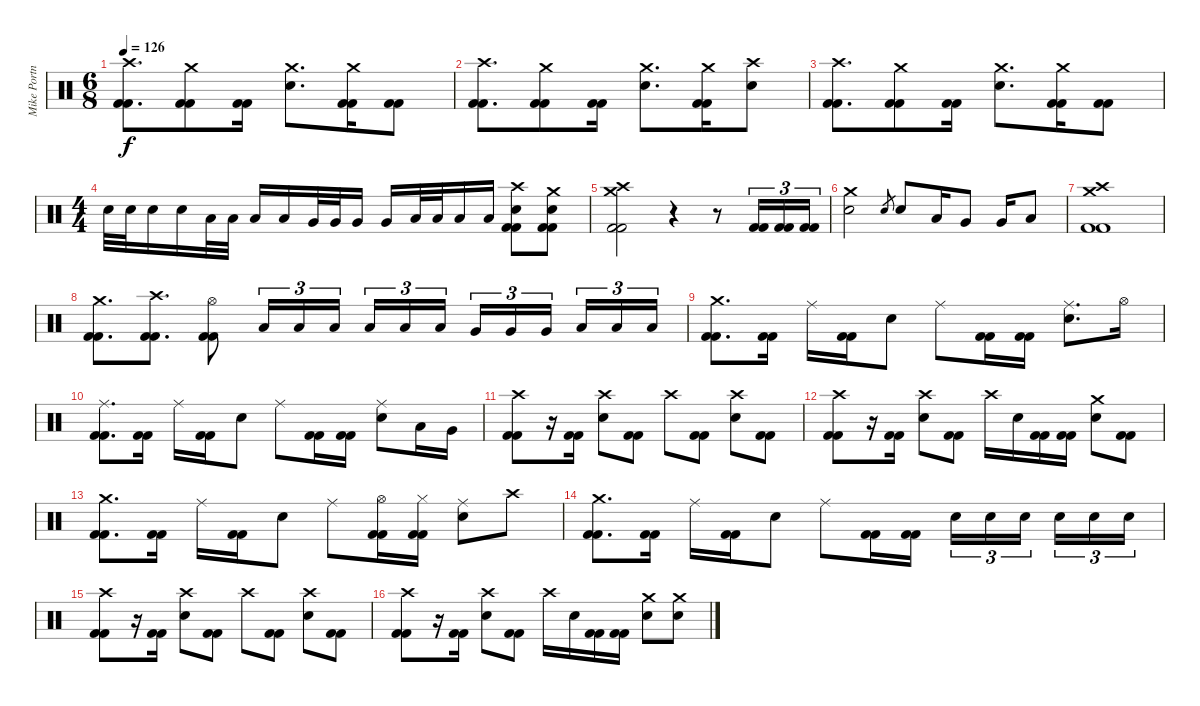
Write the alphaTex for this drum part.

\track ("Mike Portnoy" "Mike Portn") {instrument percussion}
\staff {score}
\articulation defaults
\ts (6 8)
\tempo 126
\clef neutral
\ks c
("Crash high (hit)" "Kick (hit) 2" "Kick (hit) 2").8{d dy f} ("Crash medium (hit)" "Kick (hit) 2" "Kick (hit) 2").8 ("Kick (hit) 2" "Kick (hit) 2").16 ("Crash medium (hit)" "Electric Snare (hit)").8{d} ("Crash medium (hit)" "Kick (hit) 2" "Kick (hit) 2").16 ("Kick (hit) 2" "Kick (hit) 2").8 |
("Crash high (hit)" "Kick (hit) 2" "Kick (hit) 2").8{d} ("Crash medium (hit)" "Kick (hit) 2" "Kick (hit) 2").8 ("Kick (hit) 2" "Kick (hit) 2").16 ("Crash medium (hit)" "Electric Snare (hit)").8{d} ("Crash medium (hit)" "Kick (hit) 2" "Kick (hit) 2").16 ("Crash high (hit)" "Electric Snare (hit)").8 |
("Crash high (hit)" "Kick (hit) 2" "Kick (hit) 2").8{d} ("Crash medium (hit)" "Kick (hit) 2" "Kick (hit) 2").8 ("Kick (hit) 2" "Kick (hit) 2").16 ("Crash medium (hit)" "Electric Snare (hit)").8{d} ("Crash medium (hit)" "Kick (hit) 2" "Kick (hit) 2").16 ("Kick (hit) 2" "Kick (hit) 2").8 |
\ts (4 4)
"Electric Snare (hit)".32 "Electric Snare (hit)".32 "Electric Snare (hit)".16 "Electric Snare (hit)".16 "Low Tom (hit)".32 "Low Tom (hit)".32 "Low Tom (hit)".16 "Low Tom (hit)".16 "Very Low Tom (hit)".32 "Very Low Tom (hit)".32 "Very Low Tom (hit)".16 "Very Low Tom (hit)".16 "Low Floor Tom (hit)".32 "Low Floor Tom (hit)".32 "Low Floor Tom (hit)".16 "Low Floor Tom (hit)".16 ("Crash high (hit)" "Electric Snare (hit)" "Kick (hit) 2" "Kick (hit) 2").8 ("Crash medium (hit)" "Electric Snare (hit)" "Kick (hit) 2" "Kick (hit) 2").8 |
("Crash medium (hit)" "Crash high (hit)" "Kick (hit) 2" "Kick (hit) 2").2 r.4 r.8 ("Kick (hit) 2" "Kick (hit) 2").16{tu (3 2)} ("Kick (hit) 2" "Kick (hit) 2").16{tu (3 2)} ("Kick (hit) 2" "Kick (hit) 2").16{tu (3 2)} |
("Crash medium (hit)" "Electric Snare (hit)").2 "Electric Snare (hit)".8{gr} "Electric Snare (hit)".8 "Low Tom (hit)".16 "Very Low Tom (hit)".8 "Very Low Tom (hit)".16 "Low Floor Tom (hit)".8 |
("Crash medium (hit)" "Crash high (hit)" "Kick (hit) 2" "Kick (hit) 2").1 |
("Crash medium (hit)" "Kick (hit) 2" "Kick (hit) 2").8{d} ("Crash high (hit)" "Kick (hit) 2" "Kick (hit) 2").8{d} ("Hi-Hat (open)" "Kick (hit) 2" "Kick (hit) 2").8 "Low Tom (hit)".16{tu (3 2)} "Low Tom (hit)".16{tu (3 2)} "Low Tom (hit)".16{tu (3 2) beam splitsecondary} "Low Tom (hit)".16{tu (3 2)} "Low Tom (hit)".16{tu (3 2)} "Low Tom (hit)".16{tu (3 2)} "Very Low Tom (hit)".16{tu (3 2)} "Very Low Tom (hit)".16{tu (3 2)} "Very Low Tom (hit)".16{tu (3 2) beam splitsecondary} "Low Floor Tom (hit)".16{tu (3 2)} "Low Floor Tom (hit)".16{tu (3 2)} "Low Floor Tom (hit)".16{tu (3 2)} |
("Crash medium (hit)" "Kick (hit) 2" "Kick (hit) 2").8{d} ("Kick (hit) 2" "Kick (hit) 2").16 "Ride (middle)".16 ("Kick (hit) 2" "Kick (hit) 2").16 "Electric Snare (hit)".8 "Ride (middle)".8 ("Kick (hit) 2" "Kick (hit) 2").16 ("Kick (hit) 2" "Kick (hit) 2").16 ("Ride (middle)" "Electric Snare (hit)").8{d} "Hi-Hat (open)".16 |
("Ride (middle)" "Kick (hit) 2" "Kick (hit) 2").8{d} ("Kick (hit) 2" "Kick (hit) 2").16 "Ride (middle)".16 ("Kick (hit) 2" "Kick (hit) 2").16 "Electric Snare (hit)".8 "Ride (middle)".8 ("Kick (hit) 2" "Kick (hit) 2").16 ("Kick (hit) 2" "Kick (hit) 2").16 ("Ride (middle)" "Electric Snare (hit)").8 "Low Tom (hit)".16 "Very Low Tom (hit)".16 |
("Crash high (hit)" "Kick (hit) 2" "Kick (hit) 2").8 r.16 ("Kick (hit) 2" "Kick (hit) 2").16 ("Crash high (hit)" "Electric Snare (hit)").8 ("Kick (hit) 2" "Kick (hit) 2").8 "Crash high (hit)".8 ("Kick (hit) 2" "Kick (hit) 2").8 ("Crash high (hit)" "Electric Snare (hit)").8 ("Kick (hit) 2" "Kick (hit) 2").8 |
("Crash high (hit)" "Kick (hit) 2" "Kick (hit) 2").8 r.16 ("Kick (hit) 2" "Kick (hit) 2").16 ("Crash high (hit)" "Electric Snare (hit)").8 ("Kick (hit) 2" "Kick (hit) 2").8 "Crash high (hit)".16 "Electric Snare (hit)".16 ("Kick (hit) 2" "Kick (hit) 2").16 ("Kick (hit) 2" "Kick (hit) 2").16 ("Crash medium (hit)" "Electric Snare (hit)").8 ("Kick (hit) 2" "Kick (hit) 2").8 |
("Crash medium (hit)" "Kick (hit) 2" "Kick (hit) 2").8{d} ("Kick (hit) 2" "Kick (hit) 2").16 "Ride (middle)".16 ("Kick (hit) 2" "Kick (hit) 2").16 "Electric Snare (hit)".8 "Ride (middle)".8 ("Hi-Hat (open)" "Kick (hit) 2" "Kick (hit) 2").16 ("Hi-Hat (closed)" "Kick (hit) 2" "Kick (hit) 2").16 ("Ride (middle)" "Electric Snare (hit)").8 "Crash high (hit)".8 |
("Crash medium (hit)" "Kick (hit) 2" "Kick (hit) 2").8{d} ("Kick (hit) 2" "Kick (hit) 2").16 "Ride (middle)".16 ("Kick (hit) 2" "Kick (hit) 2").16 "Electric Snare (hit)".8 "Ride (middle)".8 ("Kick (hit) 2" "Kick (hit) 2").16 ("Kick (hit) 2" "Kick (hit) 2").16 "Electric Snare (hit)".16{tu (3 2)} "Electric Snare (hit)".16{tu (3 2)} "Electric Snare (hit)".16{tu (3 2) beam splitsecondary} "Electric Snare (hit)".16{tu (3 2)} "Electric Snare (hit)".16{tu (3 2)} "Electric Snare (hit)".16{tu (3 2)} |
("Crash high (hit)" "Kick (hit) 2" "Kick (hit) 2").8 r.16 ("Kick (hit) 2" "Kick (hit) 2").16 ("Crash high (hit)" "Electric Snare (hit)").8 ("Kick (hit) 2" "Kick (hit) 2").8 "Crash high (hit)".8 ("Kick (hit) 2" "Kick (hit) 2").8 ("Crash high (hit)" "Electric Snare (hit)").8 ("Kick (hit) 2" "Kick (hit) 2").8 |
("Crash high (hit)" "Kick (hit) 2" "Kick (hit) 2").8 r.16 ("Kick (hit) 2" "Kick (hit) 2").16 ("Crash high (hit)" "Electric Snare (hit)").8 ("Kick (hit) 2" "Kick (hit) 2").8 "Crash high (hit)".16 "Electric Snare (hit)".16 ("Kick (hit) 2" "Kick (hit) 2").16 ("Kick (hit) 2" "Kick (hit) 2").16 ("Crash medium (hit)" "Electric Snare (hit)").8 ("Crash medium (hit)" "Electric Snare (hit)").8
